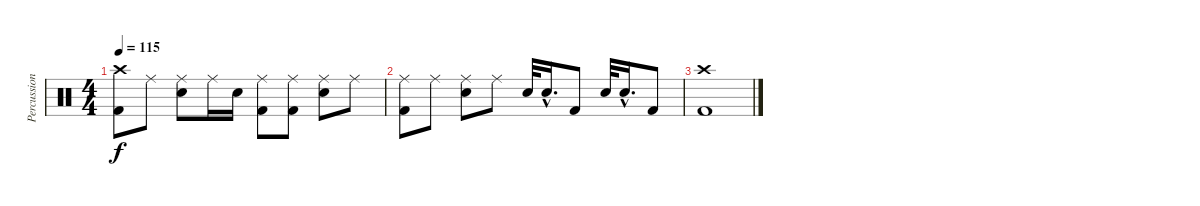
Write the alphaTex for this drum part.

\track ("Percussion" "Percussion") {instrument percussion}
\staff {score}
\articulation defaults
\ts (4 4)
\tempo 115
\clef neutral
\ks c
("Crash high (hit)" "Kick (hit) 2").8{dy f} "Ride (middle)".8 ("Ride (middle)" "Snare (hit) 2").8 "Ride (middle)".16 "Snare (hit) 2".16 ("Ride (middle)" "Kick (hit) 2").8 ("Ride (middle)" "Kick (hit) 2").8 ("Ride (middle)" "Snare (hit) 2").8 "Ride (middle)".8 |
("Ride (middle)" "Kick (hit) 2").8 "Ride (middle)".8 ("Ride (middle)" "Snare (hit) 2").8 "Ride (middle)".8 "Snare (hit) 2".32 "Snare (hit) 2"{hac}.16{d} "Kick (hit) 2".8 "Snare (hit) 2".32 "Snare (hit) 2"{hac}.16{d} "Kick (hit) 2".8 |
("Crash high (hit)" "Kick (hit) 2").1
